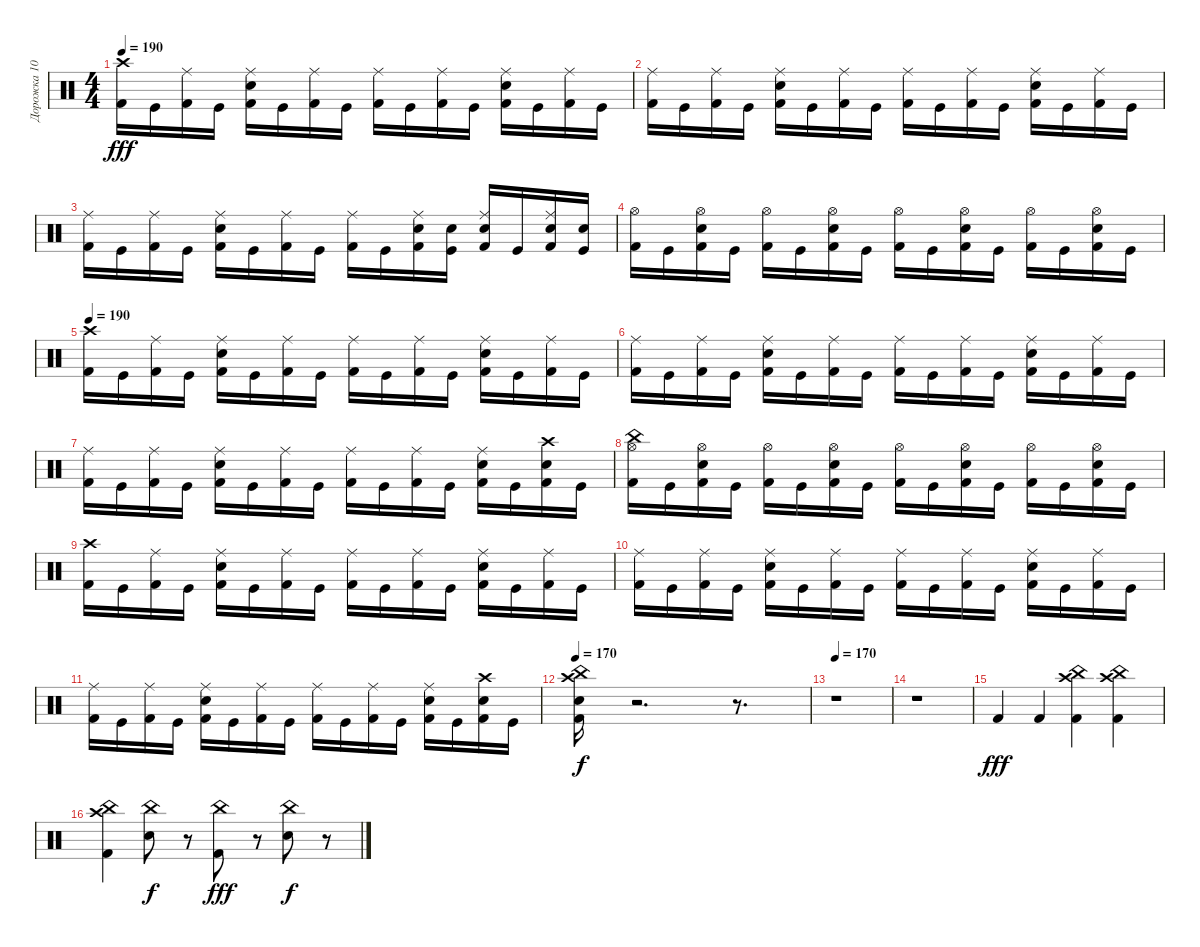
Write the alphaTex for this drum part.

\track ("Дорожка 10" "Дорожка 10") {instrument percussion}
\staff {score}
\articulation defaults
\ts (4 4)
\tempo 190
\clef neutral
\ks c
("Crash high (hit)" "Kick (hit) 2").16{dy fff} "Kick (hit)".16 ("Ride (middle)" "Kick (hit) 2").16 "Kick (hit)".16 ("Kick (hit) 2" "Ride (middle)" "Electric Snare (hit)").16 "Kick (hit)".16 ("Kick (hit) 2" "Ride (middle)").16 "Kick (hit)".16 ("Ride (middle)" "Kick (hit) 2").16 "Kick (hit)".16 ("Kick (hit) 2" "Ride (middle)").16 "Kick (hit)".16 ("Electric Snare (hit)" "Ride (middle)" "Kick (hit) 2").16 "Kick (hit)".16 ("Ride (middle)" "Kick (hit) 2").16 "Kick (hit)".16 |
("Ride (middle)" "Kick (hit) 2").16 "Kick (hit)".16 ("Ride (middle)" "Kick (hit) 2").16 "Kick (hit)".16 ("Ride (middle)" "Electric Snare (hit)" "Kick (hit) 2").16 "Kick (hit)".16 ("Ride (middle)" "Kick (hit) 2").16 "Kick (hit)".16 ("Ride (middle)" "Kick (hit) 2").16 "Kick (hit)".16 ("Kick (hit) 2" "Ride (middle)").16 "Kick (hit)".16 ("Electric Snare (hit)" "Kick (hit) 2" "Ride (middle)").16 "Kick (hit)".16 ("Ride (middle)" "Kick (hit) 2").16 "Kick (hit)".16 |
("Ride (middle)" "Kick (hit) 2").16 "Kick (hit)".16 ("Ride (middle)" "Kick (hit) 2").16 "Kick (hit)".16 ("Kick (hit) 2" "Ride (middle)" "Electric Snare (hit)").16 "Kick (hit)".16 ("Kick (hit) 2" "Ride (middle)").16 "Kick (hit)".16 ("Ride (middle)" "Kick (hit) 2").16 "Kick (hit)".16 ("Kick (hit) 2" "Electric Snare (hit)" "Ride (middle)").16 ("Kick (hit)" "Electric Snare (hit)").16 ("Kick (hit) 2" "Ride (middle)" "Electric Snare (hit)").16 "Kick (hit)".16 ("Ride (middle)" "Kick (hit) 2" "Electric Snare (hit)").16 ("Electric Snare (hit)" "Kick (hit)").16 |
("Kick (hit) 2" "Hi-Hat (open)").16 "Kick (hit)".16 ("Hi-Hat (open)" "Electric Snare (hit)" "Kick (hit) 2").16 "Kick (hit)".16 ("Kick (hit) 2" "Hi-Hat (open)").16 "Kick (hit)".16 ("Kick (hit) 2" "Hi-Hat (open)" "Electric Snare (hit)").16 "Kick (hit)".16 ("Kick (hit) 2" "Hi-Hat (open)").16 "Kick (hit)".16 ("Kick (hit) 2" "Electric Snare (hit)" "Hi-Hat (open)").16 "Kick (hit)".16 ("Hi-Hat (open)" "Kick (hit) 2").16 "Kick (hit)".16 ("Electric Snare (hit)" "Hi-Hat (open)" "Kick (hit) 2").16 "Kick (hit)".16 |
\tempo 190
("Crash high (hit)" "Kick (hit) 2").16 "Kick (hit)".16 ("Ride (middle)" "Kick (hit) 2").16 "Kick (hit)".16 ("Ride (middle)" "Kick (hit) 2" "Electric Snare (hit)").16 "Kick (hit)".16 ("Kick (hit) 2" "Ride (middle)").16 "Kick (hit)".16 ("Ride (middle)" "Kick (hit) 2").16 "Kick (hit)".16 ("Kick (hit) 2" "Ride (middle)").16 "Kick (hit)".16 ("Electric Snare (hit)" "Ride (middle)" "Kick (hit) 2").16 "Kick (hit)".16 ("Ride (middle)" "Kick (hit) 2").16 "Kick (hit)".16 |
("Ride (middle)" "Kick (hit) 2").16 "Kick (hit)".16 ("Ride (middle)" "Kick (hit) 2").16 "Kick (hit)".16 ("Electric Snare (hit)" "Ride (middle)" "Kick (hit) 2").16 "Kick (hit)".16 ("Kick (hit) 2" "Ride (middle)").16 "Kick (hit)".16 ("Kick (hit) 2" "Ride (middle)").16 "Kick (hit)".16 ("Kick (hit) 2" "Ride (middle)").16 "Kick (hit)".16 ("Kick (hit) 2" "Electric Snare (hit)" "Ride (middle)").16 "Kick (hit)".16 ("Kick (hit) 2" "Ride (middle)").16 "Kick (hit)".16 |
("Ride (middle)" "Kick (hit) 2").16 "Kick (hit)".16 ("Kick (hit) 2" "Ride (middle)").16 "Kick (hit)".16 ("Electric Snare (hit)" "Ride (middle)" "Kick (hit) 2").16 "Kick (hit)".16 ("Ride (middle)" "Kick (hit) 2").16 "Kick (hit)".16 ("Kick (hit) 2" "Ride (middle)").16 "Kick (hit)".16 ("Kick (hit) 2" "Ride (middle)").16 "Kick (hit)".16 ("Electric Snare (hit)" "Ride (middle)" "Kick (hit) 2").16 "Kick (hit)".16 ("Crash high (hit)" "Kick (hit) 2" "Electric Snare (hit)").16 "Kick (hit)".16 |
("China (hit)" "Kick (hit) 2" "Hi-Hat (open)").16 "Kick (hit)".16 ("Electric Snare (hit)" "Kick (hit) 2" "Hi-Hat (open)").16 "Kick (hit)".16 ("Hi-Hat (open)" "Kick (hit) 2").16 "Kick (hit)".16 ("Hi-Hat (open)" "Kick (hit) 2" "Electric Snare (hit)").16 "Kick (hit)".16 ("Hi-Hat (open)" "Kick (hit) 2").16 "Kick (hit)".16 ("Kick (hit) 2" "Hi-Hat (open)" "Electric Snare (hit)").16 "Kick (hit)".16 ("Hi-Hat (open)" "Kick (hit) 2").16 "Kick (hit)".16 ("Hi-Hat (open)" "Electric Snare (hit)" "Kick (hit) 2").16 "Kick (hit)".16 |
("Crash high (hit)" "Kick (hit) 2").16 "Kick (hit)".16 ("Kick (hit) 2" "Ride (middle)").16 "Kick (hit)".16 ("Electric Snare (hit)" "Kick (hit) 2" "Ride (middle)").16 "Kick (hit)".16 ("Kick (hit) 2" "Ride (middle)").16 "Kick (hit)".16 ("Kick (hit) 2" "Ride (middle)").16 "Kick (hit)".16 ("Ride (middle)" "Kick (hit) 2").16 "Kick (hit)".16 ("Ride (middle)" "Kick (hit) 2" "Electric Snare (hit)").16 "Kick (hit)".16 ("Kick (hit) 2" "Ride (middle)").16 "Kick (hit)".16 |
("Ride (middle)" "Kick (hit) 2").16 "Kick (hit)".16 ("Kick (hit) 2" "Ride (middle)").16 "Kick (hit)".16 ("Ride (middle)" "Electric Snare (hit)" "Kick (hit) 2").16 "Kick (hit)".16 ("Kick (hit) 2" "Ride (middle)").16 "Kick (hit)".16 ("Kick (hit) 2" "Ride (middle)").16 "Kick (hit)".16 ("Ride (middle)" "Kick (hit) 2").16 "Kick (hit)".16 ("Ride (middle)" "Electric Snare (hit)" "Kick (hit) 2").16 "Kick (hit)".16 ("Ride (middle)" "Kick (hit) 2").16 "Kick (hit)".16 |
("Ride (middle)" "Kick (hit) 2").16 "Kick (hit)".16 ("Ride (middle)" "Kick (hit) 2").16 "Kick (hit)".16 ("Kick (hit) 2" "Ride (middle)" "Electric Snare (hit)").16 "Kick (hit)".16 ("Ride (middle)" "Kick (hit) 2").16 "Kick (hit)".16 ("Kick (hit) 2" "Ride (middle)").16 "Kick (hit)".16 ("Kick (hit) 2" "Ride (middle)").16 "Kick (hit)".16 ("Ride (middle)" "Kick (hit) 2" "Electric Snare (hit)").16 "Kick (hit)".16 ("Crash high (hit)" "Electric Snare (hit)" "Kick (hit) 2").16 "Kick (hit)".16 |
\tempo 170
("Kick (hit) 2" "China (hit)" "Crash high (hit)" "Electric Snare (hit)").16{dy f} r.2{d} r.8{d} |
\tempo 170
r.1 |
r.1 |
"Kick (hit) 2".4{dy fff} "Kick (hit) 2".4 ("Crash high (hit)" "Kick (hit) 2" "China (hit)").4 ("Kick (hit) 2" "Crash high (hit)" "China (hit)").4 |
("China (hit)" "Kick (hit) 2" "Crash high (hit)").4 ("China (hit)" "Electric Snare (hit)").8{dy f} r.8 ("China (hit)" "Kick (hit) 2").8{dy fff} r.8 ("Electric Snare (hit)" "China (hit)").8{dy f} r.8
